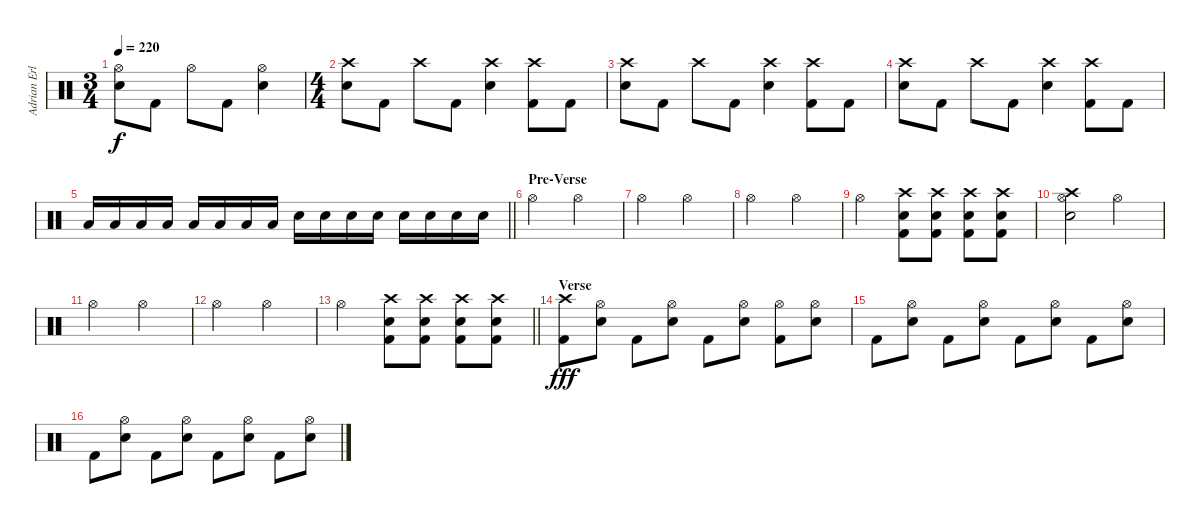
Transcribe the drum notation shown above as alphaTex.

\track ("Adrian Erlandsson" "Adrian Erl") {instrument percussion}
\staff {score}
\articulation defaults
\ts (3 4)
\tempo 220
\clef neutral
\ks c
("Hi-Hat (open)" "Electric Snare (hit)").8{dy f} "Kick (hit) 2".8 "Hi-Hat (open)".8 "Kick (hit) 2".8 ("Hi-Hat (open)" "Electric Snare (hit)").4 |
\ts (4 4)
("Crash high (hit)" "Electric Snare (hit)").8 "Kick (hit) 2".8 "Crash high (hit)".8 "Kick (hit) 2".8 ("Crash high (hit)" "Electric Snare (hit)").4 ("Crash high (hit)" "Kick (hit) 2").8 "Kick (hit) 2".8 |
("Crash high (hit)" "Electric Snare (hit)").8 "Kick (hit) 2".8 "Crash high (hit)".8 "Kick (hit) 2".8 ("Crash high (hit)" "Electric Snare (hit)").4 ("Crash high (hit)" "Kick (hit) 2").8 "Kick (hit) 2".8 |
("Crash high (hit)" "Electric Snare (hit)").8 "Kick (hit) 2".8 "Crash high (hit)".8 "Kick (hit) 2".8 ("Crash high (hit)" "Electric Snare (hit)").4 ("Crash high (hit)" "Kick (hit) 2").8 "Kick (hit) 2".8 |
\barLineRight lightlight "Low Tom (hit)".16 "Low Tom (hit)".16 "Low Tom (hit)".16 "Low Tom (hit)".16 "Low Tom (hit)".16 "Low Tom (hit)".16 "Low Tom (hit)".16 "Low Tom (hit)".16 "Electric Snare (hit)".16 "Electric Snare (hit)".16 "Electric Snare (hit)".16 "Electric Snare (hit)".16 "Electric Snare (hit)".16 "Electric Snare (hit)".16 "Electric Snare (hit)".16 "Electric Snare (hit)".16
|
\section ("" "Pre-Verse")
"Hi-Hat (open)".2 "Hi-Hat (open)".2 |
"Hi-Hat (open)".2 "Hi-Hat (open)".2 |
"Hi-Hat (open)".2 "Hi-Hat (open)".2 |
"Hi-Hat (open)".2 ("Kick (hit) 2" "Electric Snare (hit)" "Crash high (hit)").8 ("Kick (hit) 2" "Electric Snare (hit)" "Crash high (hit)").8 ("Kick (hit) 2" "Electric Snare (hit)" "Crash high (hit)").8 ("Kick (hit) 2" "Electric Snare (hit)" "Crash high (hit)").8 |
("Hi-Hat (open)" "Crash high (hit)" "Electric Snare (hit)").2 "Hi-Hat (open)".2 |
"Hi-Hat (open)".2 "Hi-Hat (open)".2 |
"Hi-Hat (open)".2 "Hi-Hat (open)".2 |
\barLineRight lightlight "Hi-Hat (open)".2
("Kick (hit) 2" "Electric Snare (hit)" "Crash high (hit)").8 ("Kick (hit) 2" "Electric Snare (hit)" "Crash high (hit)").8 ("Kick (hit) 2" "Electric Snare (hit)" "Crash high (hit)").8 ("Kick (hit) 2" "Electric Snare (hit)" "Crash high (hit)").8 |
\section ("" "Verse")
("Crash high (hit)" "Kick (hit) 2").8{dy fff} ("Hi-Hat (open)" "Electric Snare (hit)").8 "Kick (hit) 2".8 ("Hi-Hat (open)" "Electric Snare (hit)").8 "Kick (hit) 2".8 ("Hi-Hat (open)" "Electric Snare (hit)").8 ("Hi-Hat (open)" "Kick (hit) 2").8 ("Hi-Hat (open)" "Electric Snare (hit)").8 |
"Kick (hit) 2".8 ("Hi-Hat (open)" "Electric Snare (hit)").8 "Kick (hit) 2".8 ("Hi-Hat (open)" "Electric Snare (hit)").8 "Kick (hit) 2".8 ("Hi-Hat (open)" "Electric Snare (hit)").8 "Kick (hit) 2".8 ("Hi-Hat (open)" "Electric Snare (hit)").8 |
"Kick (hit) 2".8 ("Hi-Hat (open)" "Electric Snare (hit)").8 "Kick (hit) 2".8 ("Hi-Hat (open)" "Electric Snare (hit)").8 "Kick (hit) 2".8 ("Hi-Hat (open)" "Electric Snare (hit)").8 "Kick (hit) 2".8 ("Hi-Hat (open)" "Electric Snare (hit)").8
